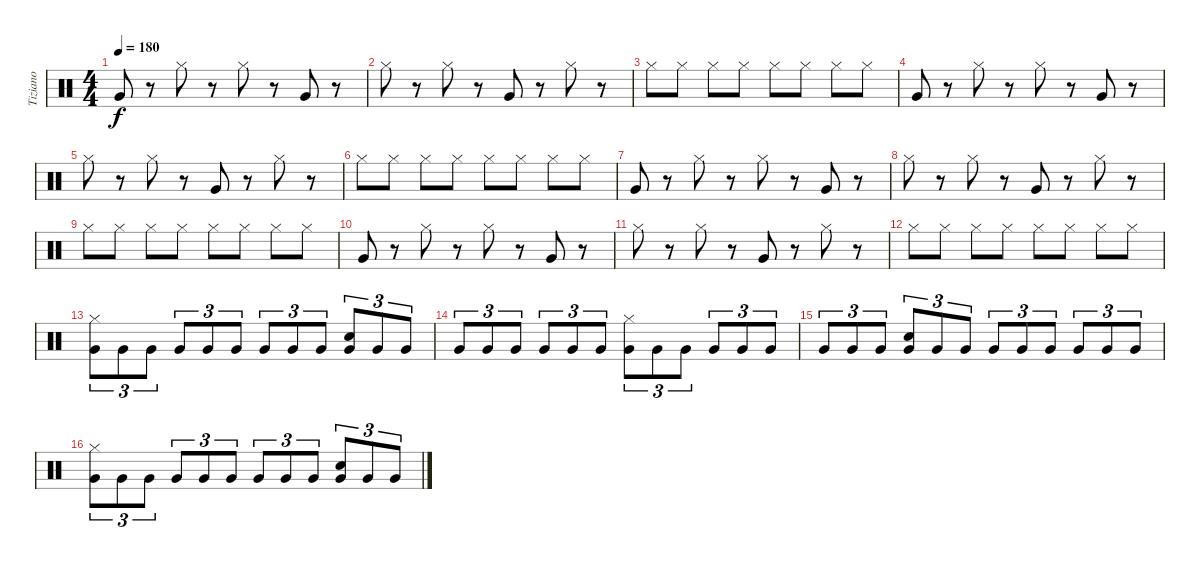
\track ("Tiziano" "Tiziano") {instrument percussion}
\staff {score}
\articulation defaults
\ts (4 4)
\tempo 180
\clef neutral
\ks c "Very Low Tom (hit)".8{dy f}
r.8 "Hi-Hat (closed)".8 r.8 "Hi-Hat (closed)".8 r.8 "Very Low Tom (hit)".8 r.8 |
"Hi-Hat (closed)".8 r.8 "Hi-Hat (closed)".8 r.8 "Very Low Tom (hit)".8 r.8 "Hi-Hat (closed)".8 r.8 |
"Hi-Hat (closed)".8 "Hi-Hat (closed)".8 "Hi-Hat (closed)".8 "Hi-Hat (closed)".8 "Hi-Hat (closed)".8 "Hi-Hat (closed)".8 "Hi-Hat (closed)".8 "Hi-Hat (closed)".8 |
"Very Low Tom (hit)".8 r.8 "Hi-Hat (closed)".8 r.8 "Hi-Hat (closed)".8 r.8 "Very Low Tom (hit)".8 r.8 |
"Hi-Hat (closed)".8 r.8 "Hi-Hat (closed)".8 r.8 "Very Low Tom (hit)".8 r.8 "Hi-Hat (closed)".8 r.8 |
"Hi-Hat (closed)".8 "Hi-Hat (closed)".8 "Hi-Hat (closed)".8 "Hi-Hat (closed)".8 "Hi-Hat (closed)".8 "Hi-Hat (closed)".8 "Hi-Hat (closed)".8 "Hi-Hat (closed)".8 |
"Very Low Tom (hit)".8 r.8 "Hi-Hat (closed)".8 r.8 "Hi-Hat (closed)".8 r.8 "Very Low Tom (hit)".8 r.8 |
"Hi-Hat (closed)".8 r.8 "Hi-Hat (closed)".8 r.8 "Very Low Tom (hit)".8 r.8 "Hi-Hat (closed)".8 r.8 |
"Hi-Hat (closed)".8 "Hi-Hat (closed)".8 "Hi-Hat (closed)".8 "Hi-Hat (closed)".8 "Hi-Hat (closed)".8 "Hi-Hat (closed)".8 "Hi-Hat (closed)".8 "Hi-Hat (closed)".8 |
"Very Low Tom (hit)".8 r.8 "Hi-Hat (closed)".8 r.8 "Hi-Hat (closed)".8 r.8 "Very Low Tom (hit)".8 r.8 |
"Hi-Hat (closed)".8 r.8 "Hi-Hat (closed)".8 r.8 "Very Low Tom (hit)".8 r.8 "Hi-Hat (closed)".8 r.8 |
"Hi-Hat (closed)".8 "Hi-Hat (closed)".8 "Hi-Hat (closed)".8 "Hi-Hat (closed)".8 "Hi-Hat (closed)".8 "Hi-Hat (closed)".8 "Hi-Hat (closed)".8 "Hi-Hat (closed)".8 |
("Very Low Tom (hit)" "Hi-Hat (closed)").8{tu (3 2)} "Very Low Tom (hit)".8{tu (3 2)} "Very Low Tom (hit)".8{tu (3 2)} "Very Low Tom (hit)".8{tu (3 2)} "Very Low Tom (hit)".8{tu (3 2)} "Very Low Tom (hit)".8{tu (3 2)} "Very Low Tom (hit)".8{tu (3 2)} "Very Low Tom (hit)".8{tu (3 2)} "Very Low Tom (hit)".8{tu (3 2)} ("Very Low Tom (hit)" "Snare (hit) 2").8{tu (3 2)} "Very Low Tom (hit)".8{tu (3 2)} "Very Low Tom (hit)".8{tu (3 2)} |
"Very Low Tom (hit)".8{tu (3 2)} "Very Low Tom (hit)".8{tu (3 2)} "Very Low Tom (hit)".8{tu (3 2)} "Very Low Tom (hit)".8{tu (3 2)} "Very Low Tom (hit)".8{tu (3 2)} "Very Low Tom (hit)".8{tu (3 2)} ("Very Low Tom (hit)" "Hi-Hat (closed)").8{tu (3 2)} "Very Low Tom (hit)".8{tu (3 2)} "Very Low Tom (hit)".8{tu (3 2)} "Very Low Tom (hit)".8{tu (3 2)} "Very Low Tom (hit)".8{tu (3 2)} "Very Low Tom (hit)".8{tu (3 2)} |
"Very Low Tom (hit)".8{tu (3 2)} "Very Low Tom (hit)".8{tu (3 2)} "Very Low Tom (hit)".8{tu (3 2)} ("Very Low Tom (hit)" "Snare (hit) 2").8{tu (3 2)} "Very Low Tom (hit)".8{tu (3 2)} "Very Low Tom (hit)".8{tu (3 2)} "Very Low Tom (hit)".8{tu (3 2)} "Very Low Tom (hit)".8{tu (3 2)} "Very Low Tom (hit)".8{tu (3 2)} "Very Low Tom (hit)".8{tu (3 2)} "Very Low Tom (hit)".8{tu (3 2)} "Very Low Tom (hit)".8{tu (3 2)} |
("Very Low Tom (hit)" "Hi-Hat (closed)").8{tu (3 2)} "Very Low Tom (hit)".8{tu (3 2)} "Very Low Tom (hit)".8{tu (3 2)} "Very Low Tom (hit)".8{tu (3 2)} "Very Low Tom (hit)".8{tu (3 2)} "Very Low Tom (hit)".8{tu (3 2)} "Very Low Tom (hit)".8{tu (3 2)} "Very Low Tom (hit)".8{tu (3 2)} "Very Low Tom (hit)".8{tu (3 2)} ("Very Low Tom (hit)" "Snare (hit) 2").8{tu (3 2)} "Very Low Tom (hit)".8{tu (3 2)} "Very Low Tom (hit)".8{tu (3 2)}
